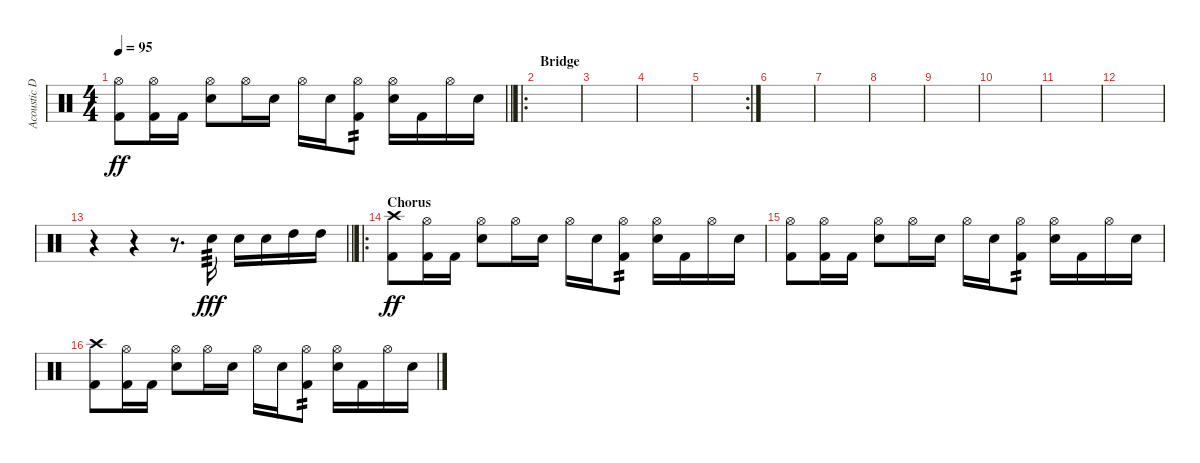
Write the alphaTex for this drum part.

\track ("Acoustic Drums" "Acoustic D") {instrument percussion}
\staff {score}
\articulation defaults
\ts (4 4)
\tempo 95
\clef neutral
\barLineRight lightlight
\ks c
("Hi-Hat (open)" "Kick (hit) 2").8{dy ff} ("Hi-Hat (open)" "Kick (hit) 2").16 "Kick (hit) 2".16 ("Hi-Hat (open)" "Electric Snare (hit)").8 "Hi-Hat (open)".16 "Electric Snare (hit)".16 "Hi-Hat (open)".16 "Electric Snare (hit)".16 ("Hi-Hat (open)" "Kick (hit) 2").8{tp 2} ("Hi-Hat (open)" "Electric Snare (hit)").16 "Kick (hit) 2".16 "Hi-Hat (open)".16 "Electric Snare (hit)".16 |
\ro
\section ("" "Bridge")
|
|
|
\rc 2
|
|
|
|
|
|
|
|
\barLineRight lightlight
r.4 r.4 r.8{d} "Snare (hit) 2".16{tp 3 dy fff} "Snare (hit) 2".16 "Snare (hit) 2".16 "High Tom (hit)".16 "High Tom (hit)".16 |
\ro
\section ("" "Chorus")
("Crash high (hit)" "Kick (hit) 2").8{dy ff} ("Hi-Hat (open)" "Kick (hit) 2").16 "Kick (hit) 2".16 ("Hi-Hat (open)" "Electric Snare (hit)").8 "Hi-Hat (open)".16 "Electric Snare (hit)".16 "Hi-Hat (open)".16 "Electric Snare (hit)".16 ("Hi-Hat (open)" "Kick (hit) 2").8{tp 2} ("Hi-Hat (open)" "Electric Snare (hit)").16 "Kick (hit) 2".16 "Hi-Hat (open)".16 "Electric Snare (hit)".16 |
("Hi-Hat (open)" "Kick (hit) 2").8 ("Hi-Hat (open)" "Kick (hit) 2").16 "Kick (hit) 2".16 ("Hi-Hat (open)" "Electric Snare (hit)").8 "Hi-Hat (open)".16 "Electric Snare (hit)".16 "Hi-Hat (open)".16 "Electric Snare (hit)".16 ("Hi-Hat (open)" "Kick (hit) 2").8{tp 2} ("Hi-Hat (open)" "Electric Snare (hit)").16 "Kick (hit) 2".16 "Hi-Hat (open)".16 "Electric Snare (hit)".16 |
("Crash high (hit)" "Kick (hit) 2").8 ("Hi-Hat (open)" "Kick (hit) 2").16 "Kick (hit) 2".16 ("Hi-Hat (open)" "Electric Snare (hit)").8 "Hi-Hat (open)".16 "Electric Snare (hit)".16 "Hi-Hat (open)".16 "Electric Snare (hit)".16 ("Hi-Hat (open)" "Kick (hit) 2").8{tp 2} ("Hi-Hat (open)" "Electric Snare (hit)").16 "Kick (hit) 2".16 "Hi-Hat (open)".16 "Electric Snare (hit)".16
